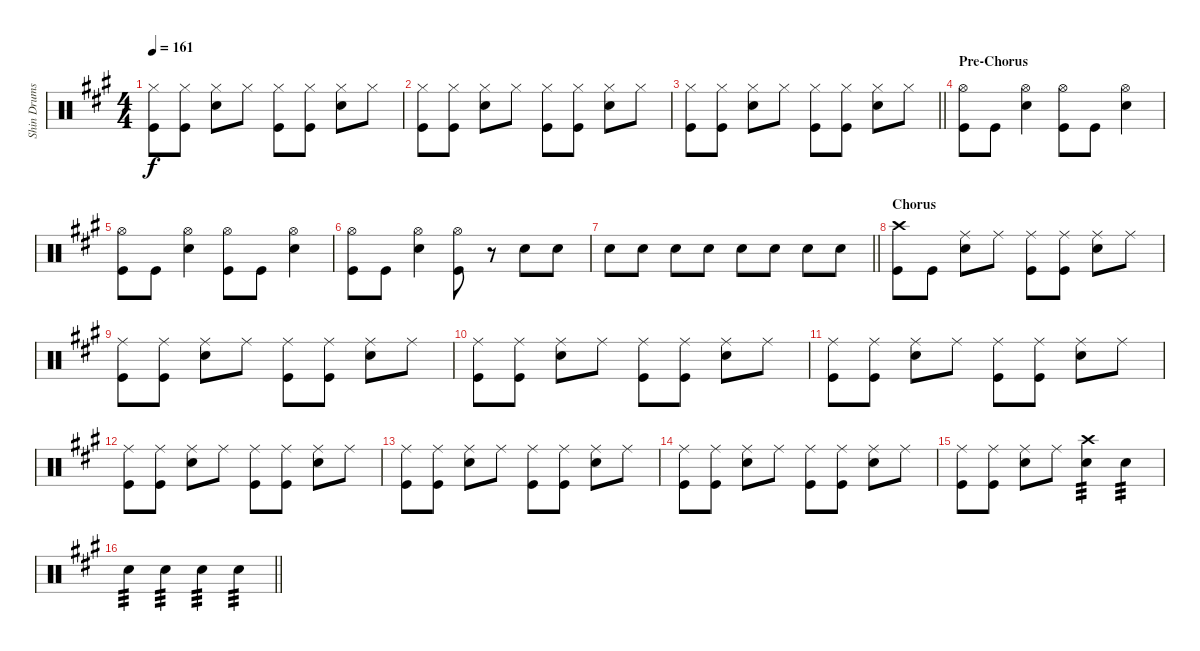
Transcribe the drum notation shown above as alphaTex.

\track ("Shin Drums" "Shin Drums") {instrument percussion}
\staff {score}
\articulation defaults
\ts (4 4)
\tempo 161
\clef neutral
\ks a
("Hi-Hat (closed)" "Kick (hit)").8{dy f} ("Hi-Hat (closed)" "Kick (hit)").8 ("Hi-Hat (closed)" "Snare (hit) 2").8 "Hi-Hat (closed)".8 ("Hi-Hat (closed)" "Kick (hit)").8 ("Hi-Hat (closed)" "Kick (hit)").8 ("Hi-Hat (closed)" "Snare (hit) 2").8 "Hi-Hat (closed)".8 |
("Hi-Hat (closed)" "Kick (hit)").8 ("Hi-Hat (closed)" "Kick (hit)").8 ("Hi-Hat (closed)" "Snare (hit) 2").8 "Hi-Hat (closed)".8 ("Hi-Hat (closed)" "Kick (hit)").8 ("Hi-Hat (closed)" "Kick (hit)").8 ("Hi-Hat (closed)" "Snare (hit) 2").8 "Hi-Hat (closed)".8 |
\barLineRight lightlight
("Hi-Hat (closed)" "Kick (hit)").8 ("Hi-Hat (closed)" "Kick (hit)").8 ("Hi-Hat (closed)" "Snare (hit) 2").8 "Hi-Hat (closed)".8 ("Hi-Hat (closed)" "Kick (hit)").8 ("Hi-Hat (closed)" "Kick (hit)").8 ("Hi-Hat (closed)" "Snare (hit) 2").8 "Hi-Hat (closed)".8 |
\section ("" "Pre-Chorus")
("Hi-Hat (open)" "Kick (hit)").8 "Kick (hit)".8 ("Hi-Hat (open)" "Snare (hit) 2").4 ("Hi-Hat (open)" "Kick (hit)").8 "Kick (hit)".8 ("Hi-Hat (open)" "Snare (hit) 2").4 |
("Hi-Hat (open)" "Kick (hit)").8 "Kick (hit)".8 ("Hi-Hat (open)" "Snare (hit) 2").4 ("Hi-Hat (open)" "Kick (hit)").8 "Kick (hit)".8 ("Hi-Hat (open)" "Snare (hit) 2").4 |
("Hi-Hat (open)" "Kick (hit)").8 "Kick (hit)".8 ("Hi-Hat (open)" "Snare (hit) 2").4 ("Hi-Hat (open)" "Kick (hit)").8 r.8 "Snare (hit) 2".8 "Snare (hit) 2".8 |
\barLineRight lightlight "Snare (hit) 2".8 "Snare (hit) 2".8 "Snare (hit) 2".8 "Snare (hit) 2".8 "Snare (hit) 2".8 "Snare (hit) 2".8 "Snare (hit) 2".8 "Snare (hit) 2".8
|
\section ("" "Chorus")
("Crash high (hit)" "Kick (hit)").8 "Kick (hit)".8 ("Ride (middle)" "Snare (hit) 2").8 "Ride (middle)".8 ("Ride (middle)" "Kick (hit)").8 ("Ride (middle)" "Kick (hit)").8 ("Ride (middle)" "Snare (hit) 2").8 "Ride (middle)".8 |
("Ride (middle)" "Kick (hit)").8 ("Ride (middle)" "Kick (hit)").8 ("Ride (middle)" "Snare (hit) 2").8 "Ride (middle)".8 ("Ride (middle)" "Kick (hit)").8 ("Ride (middle)" "Kick (hit)").8 ("Ride (middle)" "Snare (hit) 2").8 "Ride (middle)".8 |
("Ride (middle)" "Kick (hit)").8 ("Ride (middle)" "Kick (hit)").8 ("Ride (middle)" "Snare (hit) 2").8 "Ride (middle)".8 ("Ride (middle)" "Kick (hit)").8 ("Ride (middle)" "Kick (hit)").8 ("Ride (middle)" "Snare (hit) 2").8 "Ride (middle)".8 |
("Ride (middle)" "Kick (hit)").8 ("Ride (middle)" "Kick (hit)").8 ("Ride (middle)" "Snare (hit) 2").8 "Ride (middle)".8 ("Ride (middle)" "Kick (hit)").8 ("Ride (middle)" "Kick (hit)").8 ("Ride (middle)" "Snare (hit) 2").8 "Ride (middle)".8 |
("Ride (middle)" "Kick (hit)").8 ("Ride (middle)" "Kick (hit)").8 ("Ride (middle)" "Snare (hit) 2").8 "Ride (middle)".8 ("Ride (middle)" "Kick (hit)").8 ("Ride (middle)" "Kick (hit)").8 ("Ride (middle)" "Snare (hit) 2").8 "Ride (middle)".8 |
("Ride (middle)" "Kick (hit)").8 ("Ride (middle)" "Kick (hit)").8 ("Ride (middle)" "Snare (hit) 2").8 "Ride (middle)".8 ("Ride (middle)" "Kick (hit)").8 ("Ride (middle)" "Kick (hit)").8 ("Ride (middle)" "Snare (hit) 2").8 "Ride (middle)".8 |
("Ride (middle)" "Kick (hit)").8 ("Ride (middle)" "Kick (hit)").8 ("Ride (middle)" "Snare (hit) 2").8 "Ride (middle)".8 ("Ride (middle)" "Kick (hit)").8 ("Ride (middle)" "Kick (hit)").8 ("Ride (middle)" "Snare (hit) 2").8 "Ride (middle)".8 |
("Ride (middle)" "Kick (hit)").8 ("Ride (middle)" "Kick (hit)").8 ("Ride (middle)" "Snare (hit) 2").8 "Ride (middle)".8 ("Crash high (hit)" "Snare (hit) 2").4{tp 3} "Snare (hit) 2".4{tp 3} |
\barLineRight lightlight "Snare (hit) 2".4{tp 3} "Snare (hit) 2".4{tp 3} "Snare (hit) 2".4{tp 3} "Snare (hit) 2".4{tp 3}
